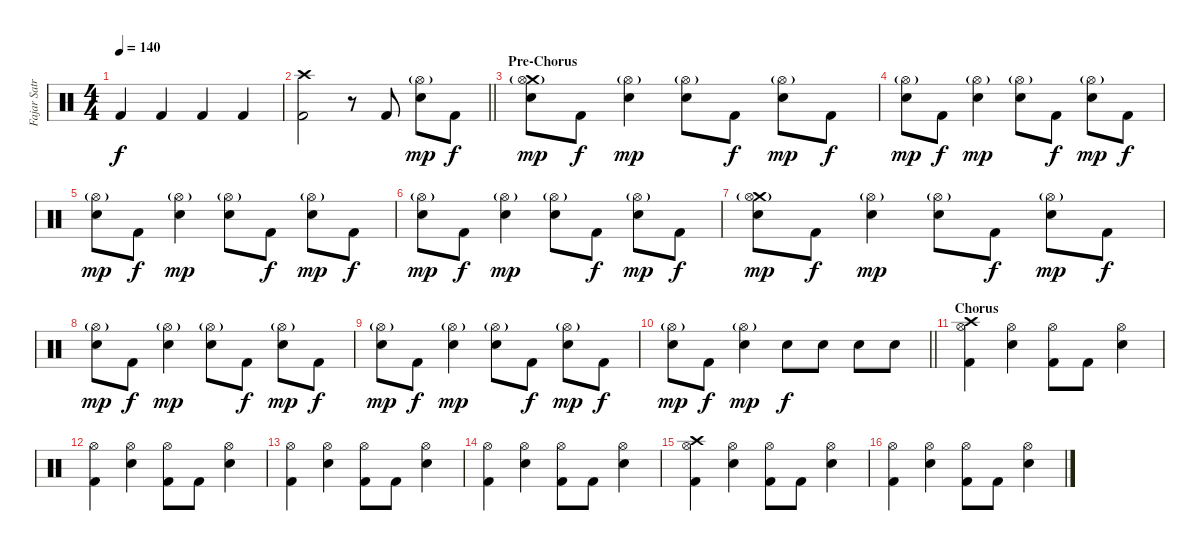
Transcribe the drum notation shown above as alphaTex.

\track ("Fajar Satriana" "Fajar Satr") {instrument percussion}
\staff {score}
\articulation defaults
\ts (4 4)
\tempo 140
\clef neutral
\ks c "Kick (hit) 2".4{dy f} "Kick (hit) 2".4 "Kick (hit) 2".4 "Kick (hit) 2".4
|
\barLineRight lightlight
("Crash high (hit)" "Kick (hit) 2").2 r.8 "Kick (hit) 2".8 ("Hi-Hat (open)"{g} "Electric Snare (hit)").8{dy mp} "Kick (hit) 2".8{dy f} |
\section ("" "Pre-Chorus")
("Crash medium (hit)" "Hi-Hat (open)"{g} "Electric Snare (hit)").8{dy mp} "Kick (hit) 2".8{dy f} ("Hi-Hat (open)"{g} "Electric Snare (hit)").4{dy mp} ("Hi-Hat (open)"{g} "Electric Snare (hit)").8 "Kick (hit) 2".8{dy f} ("Hi-Hat (open)"{g} "Electric Snare (hit)").8{dy mp} "Kick (hit) 2".8{dy f} |
("Hi-Hat (open)"{g} "Electric Snare (hit)").8{dy mp} "Kick (hit) 2".8{dy f} ("Hi-Hat (open)"{g} "Electric Snare (hit)").4{dy mp} ("Hi-Hat (open)"{g} "Electric Snare (hit)").8 "Kick (hit) 2".8{dy f} ("Hi-Hat (open)"{g} "Electric Snare (hit)").8{dy mp} "Kick (hit) 2".8{dy f} |
("Hi-Hat (open)"{g} "Electric Snare (hit)").8{dy mp} "Kick (hit) 2".8{dy f} ("Hi-Hat (open)"{g} "Electric Snare (hit)").4{dy mp} ("Hi-Hat (open)"{g} "Electric Snare (hit)").8 "Kick (hit) 2".8{dy f} ("Hi-Hat (open)"{g} "Electric Snare (hit)").8{dy mp} "Kick (hit) 2".8{dy f} |
("Hi-Hat (open)"{g} "Electric Snare (hit)").8{dy mp} "Kick (hit) 2".8{dy f} ("Hi-Hat (open)"{g} "Electric Snare (hit)").4{dy mp} ("Hi-Hat (open)"{g} "Electric Snare (hit)").8 "Kick (hit) 2".8{dy f} ("Hi-Hat (open)"{g} "Electric Snare (hit)").8{dy mp} "Kick (hit) 2".8{dy f} |
("Crash medium (hit)" "Hi-Hat (open)"{g} "Electric Snare (hit)").8{dy mp} "Kick (hit) 2".8{dy f} ("Hi-Hat (open)"{g} "Electric Snare (hit)").4{dy mp} ("Hi-Hat (open)"{g} "Electric Snare (hit)").8 "Kick (hit) 2".8{dy f} ("Hi-Hat (open)"{g} "Electric Snare (hit)").8{dy mp} "Kick (hit) 2".8{dy f} |
("Hi-Hat (open)"{g} "Electric Snare (hit)").8{dy mp} "Kick (hit) 2".8{dy f} ("Hi-Hat (open)"{g} "Electric Snare (hit)").4{dy mp} ("Hi-Hat (open)"{g} "Electric Snare (hit)").8 "Kick (hit) 2".8{dy f} ("Hi-Hat (open)"{g} "Electric Snare (hit)").8{dy mp} "Kick (hit) 2".8{dy f} |
("Hi-Hat (open)"{g} "Electric Snare (hit)").8{dy mp} "Kick (hit) 2".8{dy f} ("Hi-Hat (open)"{g} "Electric Snare (hit)").4{dy mp} ("Hi-Hat (open)"{g} "Electric Snare (hit)").8 "Kick (hit) 2".8{dy f} ("Hi-Hat (open)"{g} "Electric Snare (hit)").8{dy mp} "Kick (hit) 2".8{dy f} |
\barLineRight lightlight
("Hi-Hat (open)"{g} "Electric Snare (hit)").8{dy mp} "Kick (hit) 2".8{dy f} ("Hi-Hat (open)"{g} "Electric Snare (hit)").4{dy mp} "Electric Snare (hit)".8{dy f} "Electric Snare (hit)".8 "Electric Snare (hit)".8 "Electric Snare (hit)".8 |
\section ("" "Chorus")
("Crash high (hit)" "Hi-Hat (open)" "Kick (hit) 2").4 ("Hi-Hat (open)" "Electric Snare (hit)").4 ("Hi-Hat (open)" "Kick (hit) 2").8 "Kick (hit) 2".8 ("Hi-Hat (open)" "Electric Snare (hit)").4 |
("Hi-Hat (open)" "Kick (hit) 2").4 ("Hi-Hat (open)" "Electric Snare (hit)").4 ("Hi-Hat (open)" "Kick (hit) 2").8 "Kick (hit) 2".8 ("Hi-Hat (open)" "Electric Snare (hit)").4 |
("Hi-Hat (open)" "Kick (hit) 2").4 ("Hi-Hat (open)" "Electric Snare (hit)").4 ("Hi-Hat (open)" "Kick (hit) 2").8 "Kick (hit) 2".8 ("Hi-Hat (open)" "Electric Snare (hit)").4 |
("Hi-Hat (open)" "Kick (hit) 2").4 ("Hi-Hat (open)" "Electric Snare (hit)").4 ("Hi-Hat (open)" "Kick (hit) 2").8 "Kick (hit) 2".8 ("Hi-Hat (open)" "Electric Snare (hit)").4 |
("Crash high (hit)" "Hi-Hat (open)" "Kick (hit) 2").4 ("Hi-Hat (open)" "Electric Snare (hit)").4 ("Hi-Hat (open)" "Kick (hit) 2").8 "Kick (hit) 2".8 ("Hi-Hat (open)" "Electric Snare (hit)").4 |
("Hi-Hat (open)" "Kick (hit) 2").4 ("Hi-Hat (open)" "Electric Snare (hit)").4 ("Hi-Hat (open)" "Kick (hit) 2").8 "Kick (hit) 2".8 ("Hi-Hat (open)" "Electric Snare (hit)").4
